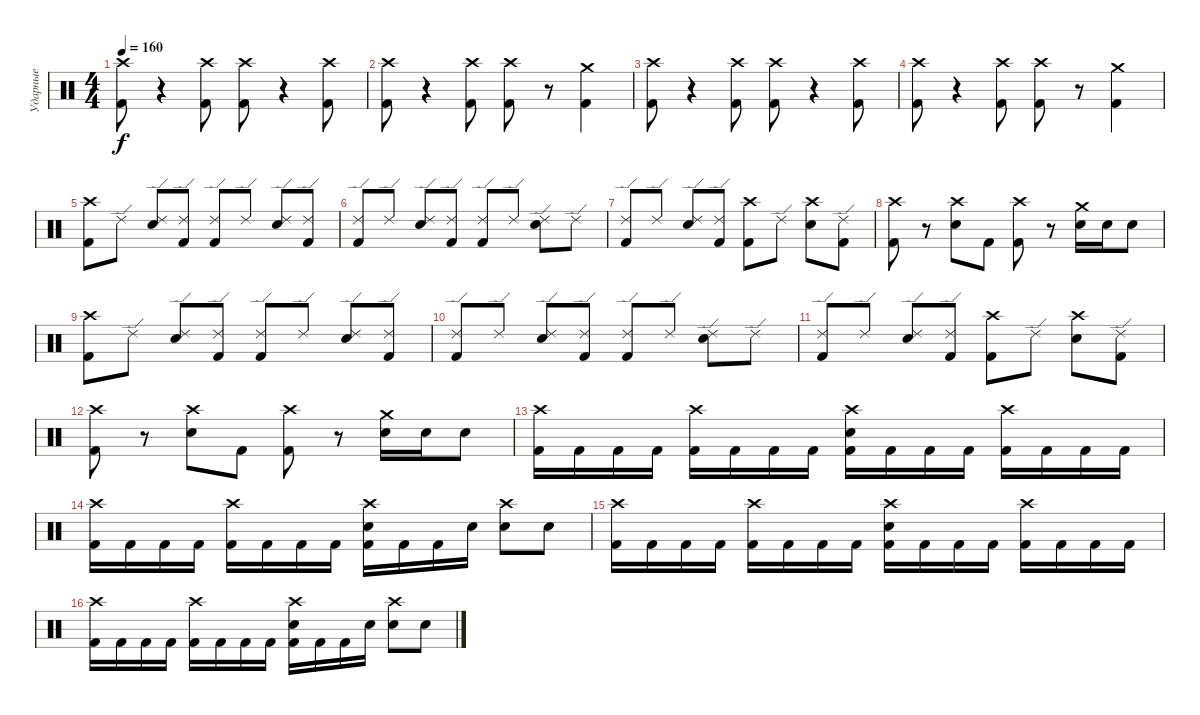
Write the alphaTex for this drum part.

\track ("Ударные" "Ударные") {instrument percussion}
\staff {score}
\articulation defaults
\ts (4 4)
\tempo 160
\clef neutral
\ks c
("Crash high (hit)" "Kick (hit) 2").8{dy f} r.4 ("Crash high (hit)" "Kick (hit) 2").8 ("Crash high (hit)" "Kick (hit) 2").8 r.4 ("Crash high (hit)" "Kick (hit) 2").8 |
("Crash high (hit)" "Kick (hit) 2").8 r.4 ("Crash high (hit)" "Kick (hit) 2").8 ("Crash high (hit)" "Kick (hit) 2").8 r.8 ("Crash medium (hit)" "Kick (hit) 2").4 |
("Crash high (hit)" "Kick (hit) 2").8 r.4 ("Crash high (hit)" "Kick (hit) 2").8 ("Crash high (hit)" "Kick (hit) 2").8 r.4 ("Crash high (hit)" "Kick (hit) 2").8 |
("Crash high (hit)" "Kick (hit) 2").8 r.4 ("Crash high (hit)" "Kick (hit) 2").8 ("Crash high (hit)" "Kick (hit) 2").8 r.8 ("Crash medium (hit)" "Kick (hit) 2").4 |
("Crash high (hit)" "Kick (hit) 2").8 "Ride (edge) 2".8 ("Ride (edge) 2" "Electric Snare (hit)").8 ("Ride (edge) 2" "Kick (hit) 2").8 ("Ride (edge) 2" "Kick (hit) 2").8 "Ride (edge) 2".8 ("Ride (edge) 2" "Electric Snare (hit)").8 ("Ride (edge) 2" "Kick (hit) 2").8 |
("Ride (edge) 2" "Kick (hit) 2").8 "Ride (edge) 2".8 ("Ride (edge) 2" "Electric Snare (hit)").8 ("Ride (edge) 2" "Kick (hit) 2").8 ("Ride (edge) 2" "Kick (hit) 2").8 "Ride (edge) 2".8 ("Ride (edge) 2" "Electric Snare (hit)").8 "Ride (edge) 2".8 |
("Ride (edge) 2" "Kick (hit) 2").8 "Ride (edge) 2".8 ("Ride (edge) 2" "Electric Snare (hit)").8 ("Ride (edge) 2" "Kick (hit) 2").8 ("Crash high (hit)" "Kick (hit) 2").8 "Ride (edge) 2".8 ("Crash high (hit)" "Electric Snare (hit)").8 ("Ride (edge) 2" "Kick (hit) 2").8 |
("Crash high (hit)" "Kick (hit) 2").8 r.8 ("Crash high (hit)" "Electric Snare (hit)").8 "Kick (hit) 2".8 ("Crash high (hit)" "Kick (hit) 2").8 r.8 ("Crash medium (hit)" "Electric Snare (hit)").16 "Electric Snare (hit)".16 "Electric Snare (hit)".8 |
("Crash high (hit)" "Kick (hit) 2").8 "Ride (edge) 2".8 ("Ride (edge) 2" "Electric Snare (hit)").8 ("Ride (edge) 2" "Kick (hit) 2").8 ("Ride (edge) 2" "Kick (hit) 2").8 "Ride (edge) 2".8 ("Ride (edge) 2" "Electric Snare (hit)").8 ("Ride (edge) 2" "Kick (hit) 2").8 |
("Ride (edge) 2" "Kick (hit) 2").8 "Ride (edge) 2".8 ("Ride (edge) 2" "Electric Snare (hit)").8 ("Ride (edge) 2" "Kick (hit) 2").8 ("Ride (edge) 2" "Kick (hit) 2").8 "Ride (edge) 2".8 ("Ride (edge) 2" "Electric Snare (hit)").8 "Ride (edge) 2".8 |
("Ride (edge) 2" "Kick (hit) 2").8 "Ride (edge) 2".8 ("Ride (edge) 2" "Electric Snare (hit)").8 ("Ride (edge) 2" "Kick (hit) 2").8 ("Crash high (hit)" "Kick (hit) 2").8 "Ride (edge) 2".8 ("Crash high (hit)" "Electric Snare (hit)").8 ("Ride (edge) 2" "Kick (hit) 2").8 |
("Crash high (hit)" "Kick (hit) 2").8 r.8 ("Crash high (hit)" "Electric Snare (hit)").8 "Kick (hit) 2".8 ("Crash high (hit)" "Kick (hit) 2").8 r.8 ("Crash medium (hit)" "Electric Snare (hit)").16 "Electric Snare (hit)".16 "Electric Snare (hit)".8 |
("Crash high (hit)" "Kick (hit) 2").16 "Kick (hit) 2".16 "Kick (hit) 2".16 "Kick (hit) 2".16 ("Crash high (hit)" "Kick (hit) 2").16 "Kick (hit) 2".16 "Kick (hit) 2".16 "Kick (hit) 2".16 ("Crash high (hit)" "Electric Snare (hit)" "Kick (hit) 2").16 "Kick (hit) 2".16 "Kick (hit) 2".16 "Kick (hit) 2".16 ("Crash high (hit)" "Kick (hit) 2").16 "Kick (hit) 2".16 "Kick (hit) 2".16 "Kick (hit) 2".16 |
("Crash high (hit)" "Kick (hit) 2").16 "Kick (hit) 2".16 "Kick (hit) 2".16 "Kick (hit) 2".16 ("Crash high (hit)" "Kick (hit) 2").16 "Kick (hit) 2".16 "Kick (hit) 2".16 "Kick (hit) 2".16 ("Crash high (hit)" "Electric Snare (hit)" "Kick (hit) 2").16 "Kick (hit) 2".16 "Kick (hit) 2".16 "Electric Snare (hit)".16 ("Crash high (hit)" "Electric Snare (hit)").8 "Electric Snare (hit)".8 |
("Crash high (hit)" "Kick (hit) 2").16 "Kick (hit) 2".16 "Kick (hit) 2".16 "Kick (hit) 2".16 ("Crash high (hit)" "Kick (hit) 2").16 "Kick (hit) 2".16 "Kick (hit) 2".16 "Kick (hit) 2".16 ("Crash high (hit)" "Electric Snare (hit)" "Kick (hit) 2").16 "Kick (hit) 2".16 "Kick (hit) 2".16 "Kick (hit) 2".16 ("Crash high (hit)" "Kick (hit) 2").16 "Kick (hit) 2".16 "Kick (hit) 2".16 "Kick (hit) 2".16 |
("Crash high (hit)" "Kick (hit) 2").16 "Kick (hit) 2".16 "Kick (hit) 2".16 "Kick (hit) 2".16 ("Crash high (hit)" "Kick (hit) 2").16 "Kick (hit) 2".16 "Kick (hit) 2".16 "Kick (hit) 2".16 ("Crash high (hit)" "Electric Snare (hit)" "Kick (hit) 2").16 "Kick (hit) 2".16 "Kick (hit) 2".16 "Electric Snare (hit)".16 ("Crash high (hit)" "Electric Snare (hit)").8 "Electric Snare (hit)".8
